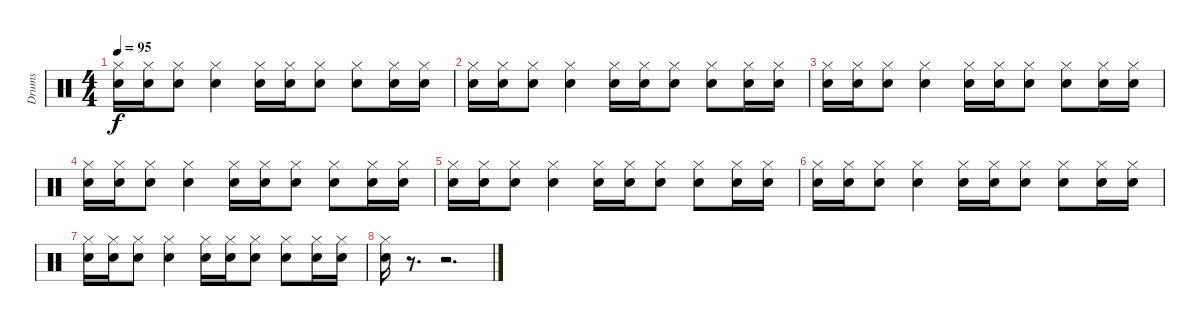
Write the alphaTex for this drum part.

\track ("Drums" "Drums") {instrument percussion}
\staff {score}
\articulation defaults
\ts (4 4)
\tempo 95
\clef neutral
\ks c
("Hi-Hat (closed)" "Snare (hit) 2").16{dy f} ("Hi-Hat (closed)" "Snare (hit) 2").16 ("Hi-Hat (closed)" "Snare (hit) 2").8 ("Hi-Hat (closed)" "Snare (hit) 2").4 ("Hi-Hat (closed)" "Snare (hit) 2").16 ("Hi-Hat (closed)" "Snare (hit) 2").16 ("Hi-Hat (closed)" "Snare (hit) 2").8 ("Hi-Hat (closed)" "Snare (hit) 2").8 ("Hi-Hat (closed)" "Snare (hit) 2").16 ("Hi-Hat (closed)" "Snare (hit) 2").16 |
("Hi-Hat (closed)" "Snare (hit) 2").16 ("Hi-Hat (closed)" "Snare (hit) 2").16 ("Hi-Hat (closed)" "Snare (hit) 2").8 ("Hi-Hat (closed)" "Snare (hit) 2").4 ("Hi-Hat (closed)" "Snare (hit) 2").16 ("Hi-Hat (closed)" "Snare (hit) 2").16 ("Hi-Hat (closed)" "Snare (hit) 2").8 ("Hi-Hat (closed)" "Snare (hit) 2").8 ("Hi-Hat (closed)" "Snare (hit) 2").16 ("Hi-Hat (closed)" "Snare (hit) 2").16 |
("Hi-Hat (closed)" "Snare (hit) 2").16 ("Hi-Hat (closed)" "Snare (hit) 2").16 ("Hi-Hat (closed)" "Snare (hit) 2").8 ("Hi-Hat (closed)" "Snare (hit) 2").4 ("Hi-Hat (closed)" "Snare (hit) 2").16 ("Hi-Hat (closed)" "Snare (hit) 2").16 ("Hi-Hat (closed)" "Snare (hit) 2").8 ("Hi-Hat (closed)" "Snare (hit) 2").8 ("Hi-Hat (closed)" "Snare (hit) 2").16 ("Hi-Hat (closed)" "Snare (hit) 2").16 |
("Hi-Hat (closed)" "Snare (hit) 2").16 ("Hi-Hat (closed)" "Snare (hit) 2").16 ("Hi-Hat (closed)" "Snare (hit) 2").8 ("Hi-Hat (closed)" "Snare (hit) 2").4 ("Hi-Hat (closed)" "Snare (hit) 2").16 ("Hi-Hat (closed)" "Snare (hit) 2").16 ("Hi-Hat (closed)" "Snare (hit) 2").8 ("Hi-Hat (closed)" "Snare (hit) 2").8 ("Hi-Hat (closed)" "Snare (hit) 2").16 ("Hi-Hat (closed)" "Snare (hit) 2").16 |
("Hi-Hat (closed)" "Snare (hit) 2").16 ("Hi-Hat (closed)" "Snare (hit) 2").16 ("Hi-Hat (closed)" "Snare (hit) 2").8 ("Hi-Hat (closed)" "Snare (hit) 2").4 ("Hi-Hat (closed)" "Snare (hit) 2").16 ("Hi-Hat (closed)" "Snare (hit) 2").16 ("Hi-Hat (closed)" "Snare (hit) 2").8 ("Hi-Hat (closed)" "Snare (hit) 2").8 ("Hi-Hat (closed)" "Snare (hit) 2").16 ("Hi-Hat (closed)" "Snare (hit) 2").16 |
("Hi-Hat (closed)" "Snare (hit) 2").16 ("Hi-Hat (closed)" "Snare (hit) 2").16 ("Hi-Hat (closed)" "Snare (hit) 2").8 ("Hi-Hat (closed)" "Snare (hit) 2").4 ("Hi-Hat (closed)" "Snare (hit) 2").16 ("Hi-Hat (closed)" "Snare (hit) 2").16 ("Hi-Hat (closed)" "Snare (hit) 2").8 ("Hi-Hat (closed)" "Snare (hit) 2").8 ("Hi-Hat (closed)" "Snare (hit) 2").16 ("Hi-Hat (closed)" "Snare (hit) 2").16 |
("Hi-Hat (closed)" "Snare (hit) 2").16 ("Hi-Hat (closed)" "Snare (hit) 2").16 ("Hi-Hat (closed)" "Snare (hit) 2").8 ("Hi-Hat (closed)" "Snare (hit) 2").4 ("Hi-Hat (closed)" "Snare (hit) 2").16 ("Hi-Hat (closed)" "Snare (hit) 2").16 ("Hi-Hat (closed)" "Snare (hit) 2").8 ("Hi-Hat (closed)" "Snare (hit) 2").8 ("Hi-Hat (closed)" "Snare (hit) 2").16 ("Hi-Hat (closed)" "Snare (hit) 2").16 |
("Hi-Hat (closed)" "Snare (hit) 2").16 r.8{d} r.2{d}
